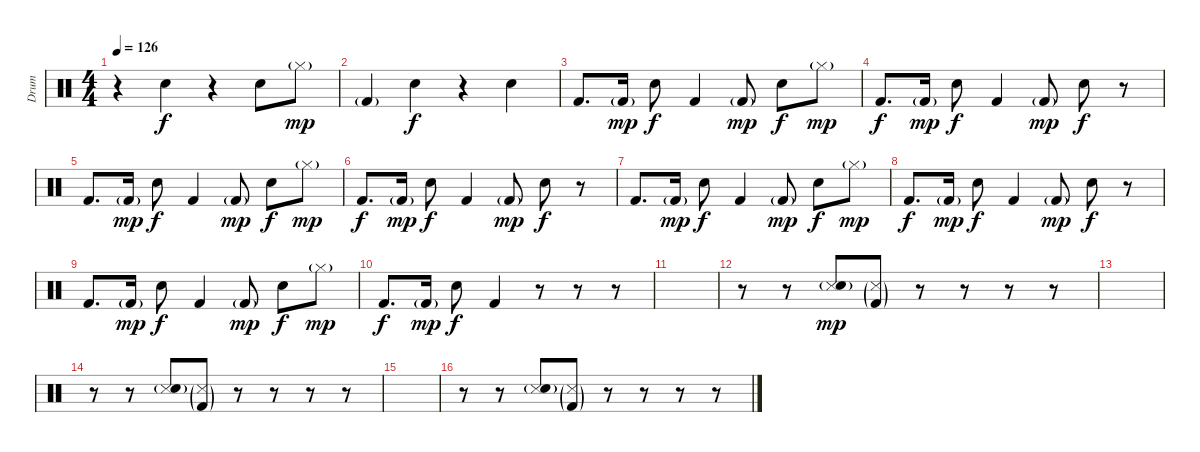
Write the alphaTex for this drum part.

\track ("Drum" "Drum") {instrument percussion}
\staff {score}
\articulation defaults
\ts (4 4)
\tempo 126
\clef neutral
\ks c
r.4{dy f} "Hand Clap (hit)".4 r.4 "Hand Clap (hit)".8 "Hi-Hat (closed)"{g}.8{dy mp} |
"Kick (hit) 2"{g}.4 "Hand Clap (hit)".4{dy f} r.4 "Hand Clap (hit)".4 |
"Kick (hit) 2".8{d} "Kick (hit) 2"{g}.16{dy mp} "Snare (hit) 2".8{dy f} "Kick (hit) 2".4 "Kick (hit) 2"{g}.8{dy mp} "Snare (hit) 2".8{dy f} "Hi-Hat (closed)"{g}.8{dy mp} |
"Kick (hit) 2".8{d dy f} "Kick (hit) 2"{g}.16{dy mp} "Snare (hit) 2".8{dy f} "Kick (hit) 2".4 "Kick (hit) 2"{g}.8{dy mp} "Snare (hit) 2".8{dy f} r.8 |
"Kick (hit) 2".8{d} "Kick (hit) 2"{g}.16{dy mp} "Snare (hit) 2".8{dy f} "Kick (hit) 2".4 "Kick (hit) 2"{g}.8{dy mp} "Snare (hit) 2".8{dy f} "Hi-Hat (closed)"{g}.8{dy mp} |
"Kick (hit) 2".8{d dy f} "Kick (hit) 2"{g}.16{dy mp} "Snare (hit) 2".8{dy f} "Kick (hit) 2".4 "Kick (hit) 2"{g}.8{dy mp} "Snare (hit) 2".8{dy f} r.8 |
"Kick (hit) 2".8{d} "Kick (hit) 2"{g}.16{dy mp} "Snare (hit) 2".8{dy f} "Kick (hit) 2".4 "Kick (hit) 2"{g}.8{dy mp} "Snare (hit) 2".8{dy f} "Hi-Hat (closed)"{g}.8{dy mp} |
"Kick (hit) 2".8{d dy f} "Kick (hit) 2"{g}.16{dy mp} "Snare (hit) 2".8{dy f} "Kick (hit) 2".4 "Kick (hit) 2"{g}.8{dy mp} "Snare (hit) 2".8{dy f} r.8 |
"Kick (hit) 2".8{d} "Kick (hit) 2"{g}.16{dy mp} "Snare (hit) 2".8{dy f} "Kick (hit) 2".4 "Kick (hit) 2"{g}.8{dy mp} "Snare (hit) 2".8{dy f} "Hi-Hat (closed)"{g}.8{dy mp} |
"Kick (hit) 2".8{d dy f} "Kick (hit) 2"{g}.16{dy mp} "Snare (hit) 2".8{dy f} "Kick (hit) 2".4 r.8 r.8 r.8 |
|
r.8{volume 14} r.8 ("Snare (side stick) 3"{g} "Hand Clap (hit)"{g}).8{dy mp} ("Snare (side stick) 3"{g} "Kick (hit) 2"{g}).8 r.8 r.8 r.8 r.8 |
|
r.8 r.8 ("Snare (side stick) 3"{g} "Hand Clap (hit)"{g}).8 ("Snare (side stick) 3"{g} "Kick (hit) 2"{g}).8 r.8 r.8 r.8 r.8 |
|
r.8 r.8 ("Snare (side stick) 3"{g} "Hand Clap (hit)"{g}).8 ("Snare (side stick) 3"{g} "Kick (hit) 2"{g}).8 r.8 r.8 r.8 r.8
